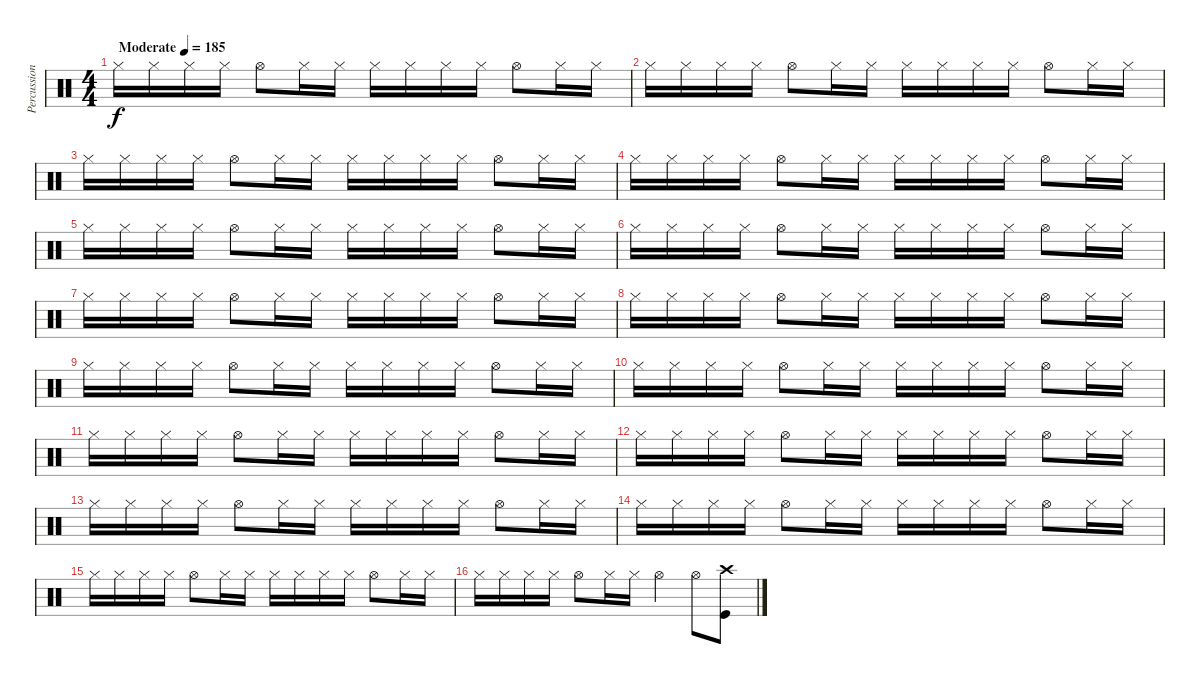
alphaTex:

\track ("Percussion" "Percussion") {instrument percussion}
\staff {score}
\articulation defaults
\ts (4 4)
\tempo (185 "Moderate")
\clef neutral
\ks c "Hi-Hat (closed)".16{dy f} "Hi-Hat (closed)".16 "Hi-Hat (closed)".16 "Hi-Hat (closed)".16 "Hi-Hat (open)".8 "Hi-Hat (closed)".16 "Hi-Hat (closed)".16 "Hi-Hat (closed)".16 "Hi-Hat (closed)".16 "Hi-Hat (closed)".16 "Hi-Hat (closed)".16 "Hi-Hat (open)".8 "Hi-Hat (closed)".16 "Hi-Hat (closed)".16
|
"Hi-Hat (closed)".16 "Hi-Hat (closed)".16 "Hi-Hat (closed)".16 "Hi-Hat (closed)".16 "Hi-Hat (open)".8 "Hi-Hat (closed)".16 "Hi-Hat (closed)".16 "Hi-Hat (closed)".16 "Hi-Hat (closed)".16 "Hi-Hat (closed)".16 "Hi-Hat (closed)".16 "Hi-Hat (open)".8 "Hi-Hat (closed)".16 "Hi-Hat (closed)".16 |
"Hi-Hat (closed)".16 "Hi-Hat (closed)".16 "Hi-Hat (closed)".16 "Hi-Hat (closed)".16 "Hi-Hat (open)".8 "Hi-Hat (closed)".16 "Hi-Hat (closed)".16 "Hi-Hat (closed)".16 "Hi-Hat (closed)".16 "Hi-Hat (closed)".16 "Hi-Hat (closed)".16 "Hi-Hat (open)".8 "Hi-Hat (closed)".16 "Hi-Hat (closed)".16 |
"Hi-Hat (closed)".16 "Hi-Hat (closed)".16 "Hi-Hat (closed)".16 "Hi-Hat (closed)".16 "Hi-Hat (open)".8 "Hi-Hat (closed)".16 "Hi-Hat (closed)".16 "Hi-Hat (closed)".16 "Hi-Hat (closed)".16 "Hi-Hat (closed)".16 "Hi-Hat (closed)".16 "Hi-Hat (open)".8 "Hi-Hat (closed)".16 "Hi-Hat (closed)".16 |
"Hi-Hat (closed)".16 "Hi-Hat (closed)".16 "Hi-Hat (closed)".16 "Hi-Hat (closed)".16 "Hi-Hat (open)".8 "Hi-Hat (closed)".16 "Hi-Hat (closed)".16 "Hi-Hat (closed)".16 "Hi-Hat (closed)".16 "Hi-Hat (closed)".16 "Hi-Hat (closed)".16 "Hi-Hat (open)".8 "Hi-Hat (closed)".16 "Hi-Hat (closed)".16 |
"Hi-Hat (closed)".16 "Hi-Hat (closed)".16 "Hi-Hat (closed)".16 "Hi-Hat (closed)".16 "Hi-Hat (open)".8 "Hi-Hat (closed)".16 "Hi-Hat (closed)".16 "Hi-Hat (closed)".16 "Hi-Hat (closed)".16 "Hi-Hat (closed)".16 "Hi-Hat (closed)".16 "Hi-Hat (open)".8 "Hi-Hat (closed)".16 "Hi-Hat (closed)".16 |
"Hi-Hat (closed)".16 "Hi-Hat (closed)".16 "Hi-Hat (closed)".16 "Hi-Hat (closed)".16 "Hi-Hat (open)".8 "Hi-Hat (closed)".16 "Hi-Hat (closed)".16 "Hi-Hat (closed)".16 "Hi-Hat (closed)".16 "Hi-Hat (closed)".16 "Hi-Hat (closed)".16 "Hi-Hat (open)".8 "Hi-Hat (closed)".16 "Hi-Hat (closed)".16 |
"Hi-Hat (closed)".16 "Hi-Hat (closed)".16 "Hi-Hat (closed)".16 "Hi-Hat (closed)".16 "Hi-Hat (open)".8 "Hi-Hat (closed)".16 "Hi-Hat (closed)".16 "Hi-Hat (closed)".16 "Hi-Hat (closed)".16 "Hi-Hat (closed)".16 "Hi-Hat (closed)".16 "Hi-Hat (open)".8 "Hi-Hat (closed)".16 "Hi-Hat (closed)".16 |
"Hi-Hat (closed)".16 "Hi-Hat (closed)".16 "Hi-Hat (closed)".16 "Hi-Hat (closed)".16 "Hi-Hat (open)".8 "Hi-Hat (closed)".16 "Hi-Hat (closed)".16 "Hi-Hat (closed)".16 "Hi-Hat (closed)".16 "Hi-Hat (closed)".16 "Hi-Hat (closed)".16 "Hi-Hat (open)".8 "Hi-Hat (closed)".16 "Hi-Hat (closed)".16 |
"Hi-Hat (closed)".16 "Hi-Hat (closed)".16 "Hi-Hat (closed)".16 "Hi-Hat (closed)".16 "Hi-Hat (open)".8 "Hi-Hat (closed)".16 "Hi-Hat (closed)".16 "Hi-Hat (closed)".16 "Hi-Hat (closed)".16 "Hi-Hat (closed)".16 "Hi-Hat (closed)".16 "Hi-Hat (open)".8 "Hi-Hat (closed)".16 "Hi-Hat (closed)".16 |
"Hi-Hat (closed)".16 "Hi-Hat (closed)".16 "Hi-Hat (closed)".16 "Hi-Hat (closed)".16 "Hi-Hat (open)".8 "Hi-Hat (closed)".16 "Hi-Hat (closed)".16 "Hi-Hat (closed)".16 "Hi-Hat (closed)".16 "Hi-Hat (closed)".16 "Hi-Hat (closed)".16 "Hi-Hat (open)".8 "Hi-Hat (closed)".16 "Hi-Hat (closed)".16 |
"Hi-Hat (closed)".16 "Hi-Hat (closed)".16 "Hi-Hat (closed)".16 "Hi-Hat (closed)".16 "Hi-Hat (open)".8 "Hi-Hat (closed)".16 "Hi-Hat (closed)".16 "Hi-Hat (closed)".16 "Hi-Hat (closed)".16 "Hi-Hat (closed)".16 "Hi-Hat (closed)".16 "Hi-Hat (open)".8 "Hi-Hat (closed)".16 "Hi-Hat (closed)".16 |
"Hi-Hat (closed)".16 "Hi-Hat (closed)".16 "Hi-Hat (closed)".16 "Hi-Hat (closed)".16 "Hi-Hat (open)".8 "Hi-Hat (closed)".16 "Hi-Hat (closed)".16 "Hi-Hat (closed)".16 "Hi-Hat (closed)".16 "Hi-Hat (closed)".16 "Hi-Hat (closed)".16 "Hi-Hat (open)".8 "Hi-Hat (closed)".16 "Hi-Hat (closed)".16 |
"Hi-Hat (closed)".16 "Hi-Hat (closed)".16 "Hi-Hat (closed)".16 "Hi-Hat (closed)".16 "Hi-Hat (open)".8 "Hi-Hat (closed)".16 "Hi-Hat (closed)".16 "Hi-Hat (closed)".16 "Hi-Hat (closed)".16 "Hi-Hat (closed)".16 "Hi-Hat (closed)".16 "Hi-Hat (open)".8 "Hi-Hat (closed)".16 "Hi-Hat (closed)".16 |
"Hi-Hat (closed)".16 "Hi-Hat (closed)".16 "Hi-Hat (closed)".16 "Hi-Hat (closed)".16 "Hi-Hat (open)".8 "Hi-Hat (closed)".16 "Hi-Hat (closed)".16 "Hi-Hat (closed)".16 "Hi-Hat (closed)".16 "Hi-Hat (closed)".16 "Hi-Hat (closed)".16 "Hi-Hat (open)".8 "Hi-Hat (closed)".16 "Hi-Hat (closed)".16 |
"Hi-Hat (closed)".16 "Hi-Hat (closed)".16 "Hi-Hat (closed)".16 "Hi-Hat (closed)".16 "Hi-Hat (open)".8 "Hi-Hat (closed)".16 "Hi-Hat (closed)".16 "Hi-Hat (open)".4 "Hi-Hat (open)".8 ("Crash high (hit)" "Kick (hit)").8
